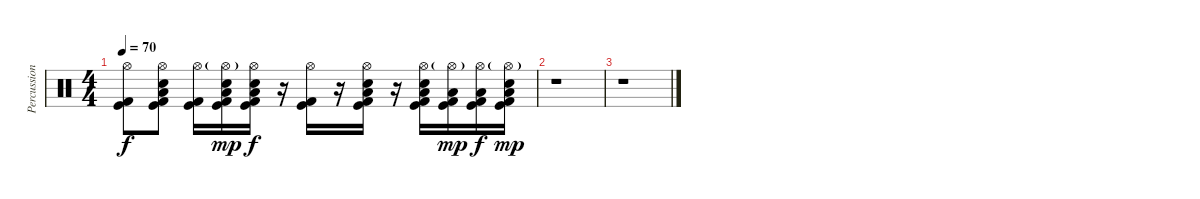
\track ("Percussion" "Percussion") {instrument percussion}
\staff {score}
\articulation defaults
\ts (4 4)
\tempo 70
\clef neutral
\ks c
("Hi-Hat (open)" "Kick (hit)" "Kick (hit) 2").8{dy f} ("Hi-Hat (open)" "Snare (hit) 2" "Low Floor Tom (hit)" "Kick (hit)" "Kick (hit) 2").8 ("Hi-Hat (open)" "Kick (hit)" "Kick (hit) 2").16 ("Hi-Hat (open)"{g} "Snare (hit) 2" "Low Floor Tom (hit)" "Kick (hit)" "Kick (hit) 2").16{dy mp} ("Hi-Hat (open)" "Snare (hit) 2" "Low Floor Tom (hit)" "Kick (hit)" "Kick (hit) 2").16{dy f} r.16 ("Hi-Hat (open)" "Kick (hit)" "Kick (hit) 2").16 r.16 ("Hi-Hat (open)" "Snare (hit) 2" "Low Floor Tom (hit)" "Kick (hit)" "Kick (hit) 2").16 r.16 ("Hi-Hat (open)" "Snare (hit) 2" "Low Floor Tom (hit)" "Kick (hit)" "Kick (hit) 2").16 ("Hi-Hat (open)"{g} "Low Tom (hit)" "Kick (hit)" "Kick (hit) 2").16{dy mp} ("Hi-Hat (open)" "Low Floor Tom (hit)" "Kick (hit)" "Kick (hit) 2").16{dy f} ("Hi-Hat (open)"{g} "Snare (hit) 2" "Low Floor Tom (hit)" "Kick (hit)" "Kick (hit) 2").16{dy mp} |
r.1 |
r.1
